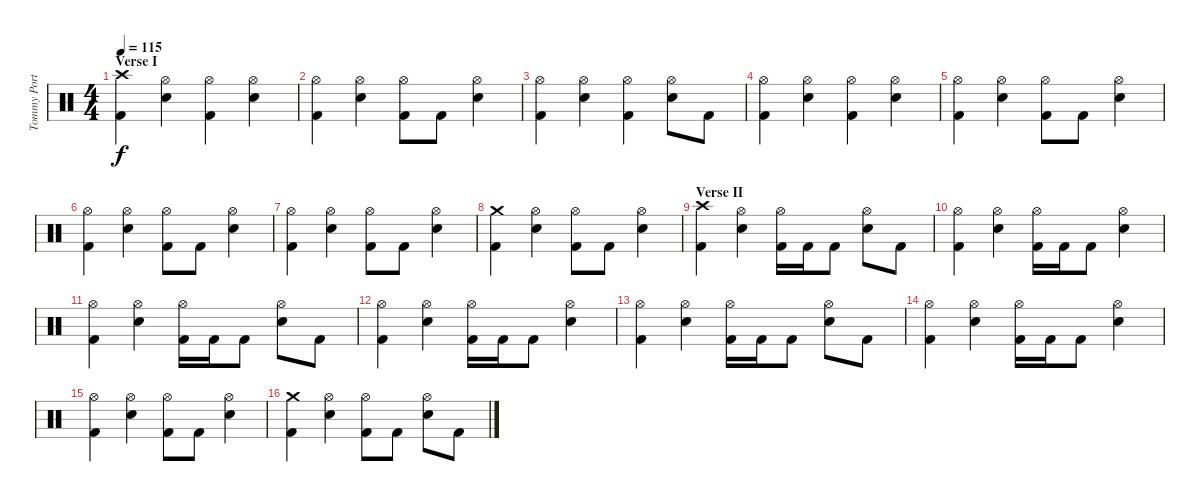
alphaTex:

\track ("Tommy Portino - Drums" "Tommy Port") {instrument percussion}
\staff {score}
\articulation defaults
\ts (4 4)
\section ("" "Verse I")
\tempo 115
\clef neutral
\ks c
("Crash high (hit)" "Kick (hit) 2").4{dy f} ("Hi-Hat (open)" "Electric Snare (hit)").4 ("Hi-Hat (open)" "Kick (hit) 2").4 ("Hi-Hat (open)" "Electric Snare (hit)").4 |
("Hi-Hat (open)" "Kick (hit) 2").4 ("Hi-Hat (open)" "Electric Snare (hit)").4 ("Hi-Hat (open)" "Kick (hit) 2").8 "Kick (hit) 2".8 ("Hi-Hat (open)" "Electric Snare (hit)").4 |
("Hi-Hat (open)" "Kick (hit) 2").4 ("Hi-Hat (open)" "Electric Snare (hit)").4 ("Hi-Hat (open)" "Kick (hit) 2").4 ("Hi-Hat (open)" "Electric Snare (hit)").8 "Kick (hit) 2".8 |
("Hi-Hat (open)" "Kick (hit) 2").4 ("Hi-Hat (open)" "Electric Snare (hit)").4 ("Hi-Hat (open)" "Kick (hit) 2").4 ("Hi-Hat (open)" "Electric Snare (hit)").4 |
("Hi-Hat (open)" "Kick (hit) 2").4 ("Hi-Hat (open)" "Electric Snare (hit)").4 ("Hi-Hat (open)" "Kick (hit) 2").8 "Kick (hit) 2".8 ("Hi-Hat (open)" "Electric Snare (hit)").4 |
("Hi-Hat (open)" "Kick (hit) 2").4 ("Hi-Hat (open)" "Electric Snare (hit)").4 ("Hi-Hat (open)" "Kick (hit) 2").8 "Kick (hit) 2".8 ("Hi-Hat (open)" "Electric Snare (hit)").4 |
("Hi-Hat (open)" "Kick (hit) 2").4 ("Hi-Hat (open)" "Electric Snare (hit)").4 ("Hi-Hat (open)" "Kick (hit) 2").8 "Kick (hit) 2".8 ("Hi-Hat (open)" "Electric Snare (hit)").4 |
("Crash medium (hit)" "Kick (hit) 2").4 ("Hi-Hat (open)" "Electric Snare (hit)").4 ("Hi-Hat (open)" "Kick (hit) 2").8 "Kick (hit) 2".8 ("Hi-Hat (open)" "Electric Snare (hit)").4 |
\section ("" "Verse II")
("Crash high (hit)" "Kick (hit) 2").4 ("Hi-Hat (open)" "Electric Snare (hit)").4 ("Hi-Hat (open)" "Kick (hit) 2").16 "Kick (hit) 2".16 "Kick (hit) 2".8 ("Hi-Hat (open)" "Electric Snare (hit)").8 "Kick (hit) 2".8 |
("Hi-Hat (open)" "Kick (hit) 2").4 ("Hi-Hat (open)" "Electric Snare (hit)").4 ("Hi-Hat (open)" "Kick (hit) 2").16 "Kick (hit) 2".16 "Kick (hit) 2".8 ("Hi-Hat (open)" "Electric Snare (hit)").4 |
("Hi-Hat (open)" "Kick (hit) 2").4 ("Hi-Hat (open)" "Electric Snare (hit)").4 ("Hi-Hat (open)" "Kick (hit) 2").16 "Kick (hit) 2".16 "Kick (hit) 2".8 ("Hi-Hat (open)" "Electric Snare (hit)").8 "Kick (hit) 2".8 |
("Hi-Hat (open)" "Kick (hit) 2").4 ("Hi-Hat (open)" "Electric Snare (hit)").4 ("Hi-Hat (open)" "Kick (hit) 2").16 "Kick (hit) 2".16 "Kick (hit) 2".8 ("Hi-Hat (open)" "Electric Snare (hit)").4 |
("Hi-Hat (open)" "Kick (hit) 2").4 ("Hi-Hat (open)" "Electric Snare (hit)").4 ("Hi-Hat (open)" "Kick (hit) 2").16 "Kick (hit) 2".16 "Kick (hit) 2".8 ("Hi-Hat (open)" "Electric Snare (hit)").8 "Kick (hit) 2".8 |
("Hi-Hat (open)" "Kick (hit) 2").4 ("Hi-Hat (open)" "Electric Snare (hit)").4 ("Hi-Hat (open)" "Kick (hit) 2").16 "Kick (hit) 2".16 "Kick (hit) 2".8 ("Hi-Hat (open)" "Electric Snare (hit)").4 |
("Hi-Hat (open)" "Kick (hit) 2").4 ("Hi-Hat (open)" "Electric Snare (hit)").4 ("Hi-Hat (open)" "Kick (hit) 2").8 "Kick (hit) 2".8 ("Hi-Hat (open)" "Electric Snare (hit)").4 |
("Crash medium (hit)" "Kick (hit) 2").4 ("Hi-Hat (open)" "Electric Snare (hit)").4 ("Hi-Hat (open)" "Kick (hit) 2").8 "Kick (hit) 2".8 ("Hi-Hat (open)" "Electric Snare (hit)").8 "Kick (hit) 2".8
